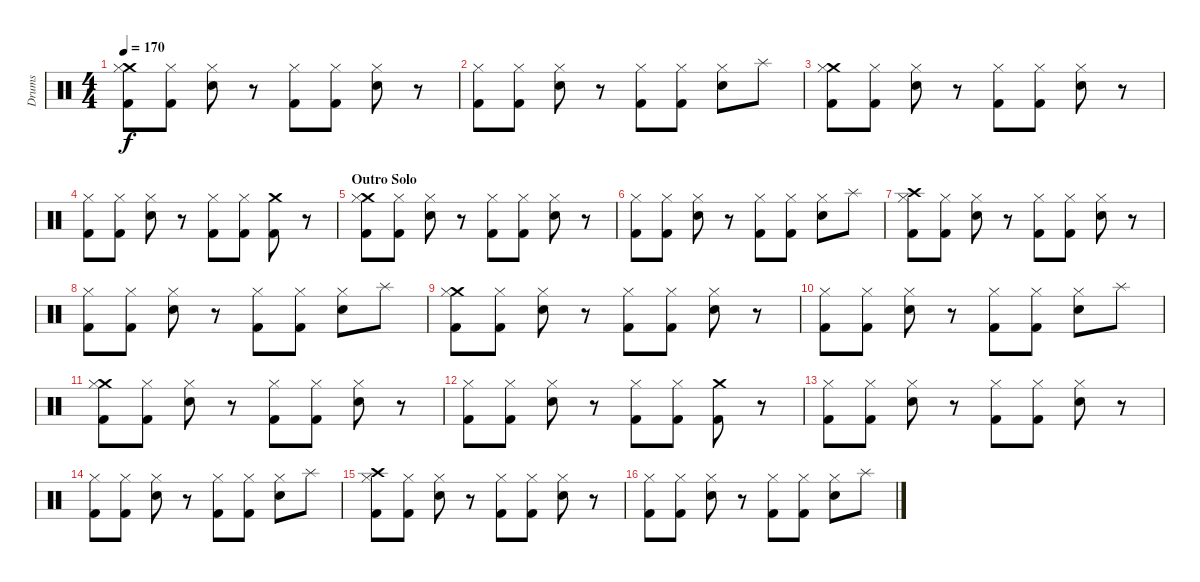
\track ("Drums" "Drums") {instrument percussion}
\staff {score}
\articulation defaults
\ts (4 4)
\tempo 170
\clef neutral
\ks c
("Crash medium (hit)" "Hi-Hat (closed)" "Kick (hit) 2").8{dy f} ("Hi-Hat (closed)" "Kick (hit) 2").8 ("Hi-Hat (closed)" "Snare (hit) 2").8 r.8 ("Hi-Hat (closed)" "Kick (hit) 2").8 ("Hi-Hat (closed)" "Kick (hit) 2").8 ("Hi-Hat (closed)" "Snare (hit) 2").8 r.8 |
("Hi-Hat (closed)" "Kick (hit) 2").8 ("Hi-Hat (closed)" "Kick (hit) 2").8 ("Hi-Hat (closed)" "Snare (hit) 2").8 r.8 ("Hi-Hat (closed)" "Kick (hit) 2").8 ("Hi-Hat (closed)" "Kick (hit) 2").8 ("Hi-Hat (closed)" "Snare (hit) 2").8 "Splash (hit)".8 |
("Crash medium (hit)" "Hi-Hat (closed)" "Kick (hit) 2").8 ("Hi-Hat (closed)" "Kick (hit) 2").8 ("Hi-Hat (closed)" "Snare (hit) 2").8 r.8 ("Hi-Hat (closed)" "Kick (hit) 2").8 ("Hi-Hat (closed)" "Kick (hit) 2").8 ("Hi-Hat (closed)" "Snare (hit) 2").8 r.8 |
("Hi-Hat (closed)" "Kick (hit) 2").8 ("Hi-Hat (closed)" "Kick (hit) 2").8 ("Hi-Hat (closed)" "Snare (hit) 2").8 r.8 ("Hi-Hat (closed)" "Kick (hit) 2").8 ("Hi-Hat (closed)" "Kick (hit) 2").8 ("Crash medium (hit)" "Kick (hit) 2").8 r.8 |
\section ("" "Outro Solo")
("Crash medium (hit)" "Hi-Hat (closed)" "Kick (hit) 2").8 ("Hi-Hat (closed)" "Kick (hit) 2").8 ("Hi-Hat (closed)" "Snare (hit) 2").8 r.8 ("Hi-Hat (closed)" "Kick (hit) 2").8 ("Hi-Hat (closed)" "Kick (hit) 2").8 ("Hi-Hat (closed)" "Snare (hit) 2").8 r.8 |
("Hi-Hat (closed)" "Kick (hit) 2").8 ("Hi-Hat (closed)" "Kick (hit) 2").8 ("Hi-Hat (closed)" "Snare (hit) 2").8 r.8 ("Hi-Hat (closed)" "Kick (hit) 2").8 ("Hi-Hat (closed)" "Kick (hit) 2").8 ("Hi-Hat (closed)" "Snare (hit) 2").8 "Splash (hit)".8 |
("Crash high (hit)" "Hi-Hat (closed)" "Kick (hit) 2").8 ("Hi-Hat (closed)" "Kick (hit) 2").8 ("Hi-Hat (closed)" "Snare (hit) 2").8 r.8 ("Hi-Hat (closed)" "Kick (hit) 2").8 ("Hi-Hat (closed)" "Kick (hit) 2").8 ("Hi-Hat (closed)" "Snare (hit) 2").8 r.8 |
("Hi-Hat (closed)" "Kick (hit) 2").8 ("Hi-Hat (closed)" "Kick (hit) 2").8 ("Hi-Hat (closed)" "Snare (hit) 2").8 r.8 ("Hi-Hat (closed)" "Kick (hit) 2").8 ("Hi-Hat (closed)" "Kick (hit) 2").8 ("Hi-Hat (closed)" "Snare (hit) 2").8 "Splash (hit)".8 |
("Crash medium (hit)" "Hi-Hat (closed)" "Kick (hit) 2").8 ("Hi-Hat (closed)" "Kick (hit) 2").8 ("Hi-Hat (closed)" "Snare (hit) 2").8 r.8 ("Hi-Hat (closed)" "Kick (hit) 2").8 ("Hi-Hat (closed)" "Kick (hit) 2").8 ("Hi-Hat (closed)" "Snare (hit) 2").8 r.8 |
("Hi-Hat (closed)" "Kick (hit) 2").8 ("Hi-Hat (closed)" "Kick (hit) 2").8 ("Hi-Hat (closed)" "Snare (hit) 2").8 r.8 ("Hi-Hat (closed)" "Kick (hit) 2").8 ("Hi-Hat (closed)" "Kick (hit) 2").8 ("Hi-Hat (closed)" "Snare (hit) 2").8 "Splash (hit)".8 |
("Crash medium (hit)" "Hi-Hat (closed)" "Kick (hit) 2").8 ("Hi-Hat (closed)" "Kick (hit) 2").8 ("Hi-Hat (closed)" "Snare (hit) 2").8 r.8 ("Hi-Hat (closed)" "Kick (hit) 2").8 ("Hi-Hat (closed)" "Kick (hit) 2").8 ("Hi-Hat (closed)" "Snare (hit) 2").8 r.8 |
("Hi-Hat (closed)" "Kick (hit) 2").8 ("Hi-Hat (closed)" "Kick (hit) 2").8 ("Hi-Hat (closed)" "Snare (hit) 2").8 r.8 ("Hi-Hat (closed)" "Kick (hit) 2").8 ("Hi-Hat (closed)" "Kick (hit) 2").8 ("Crash medium (hit)" "Kick (hit) 2").8 r.8 |
("Hi-Hat (closed)" "Kick (hit) 2").8 ("Hi-Hat (closed)" "Kick (hit) 2").8 ("Hi-Hat (closed)" "Snare (hit) 2").8 r.8 ("Hi-Hat (closed)" "Kick (hit) 2").8 ("Hi-Hat (closed)" "Kick (hit) 2").8 ("Hi-Hat (closed)" "Snare (hit) 2").8 r.8 |
("Hi-Hat (closed)" "Kick (hit) 2").8 ("Hi-Hat (closed)" "Kick (hit) 2").8 ("Hi-Hat (closed)" "Snare (hit) 2").8 r.8 ("Hi-Hat (closed)" "Kick (hit) 2").8 ("Hi-Hat (closed)" "Kick (hit) 2").8 ("Hi-Hat (closed)" "Snare (hit) 2").8 "Splash (hit)".8 |
("Crash high (hit)" "Hi-Hat (closed)" "Kick (hit) 2").8 ("Hi-Hat (closed)" "Kick (hit) 2").8 ("Hi-Hat (closed)" "Snare (hit) 2").8 r.8 ("Hi-Hat (closed)" "Kick (hit) 2").8 ("Hi-Hat (closed)" "Kick (hit) 2").8 ("Hi-Hat (closed)" "Snare (hit) 2").8 r.8 |
("Hi-Hat (closed)" "Kick (hit) 2").8 ("Hi-Hat (closed)" "Kick (hit) 2").8 ("Hi-Hat (closed)" "Snare (hit) 2").8 r.8 ("Hi-Hat (closed)" "Kick (hit) 2").8 ("Hi-Hat (closed)" "Kick (hit) 2").8 ("Hi-Hat (closed)" "Snare (hit) 2").8 "Splash (hit)".8
